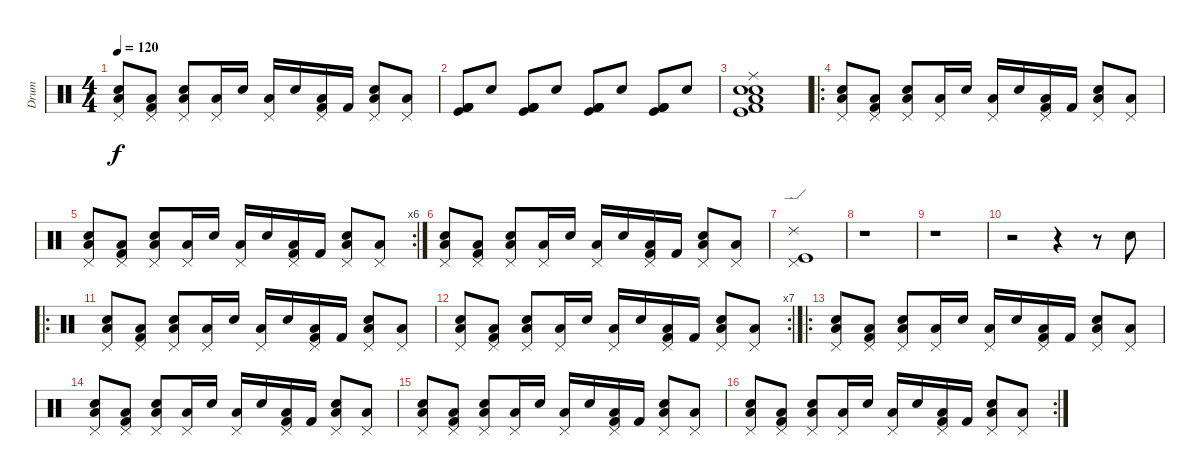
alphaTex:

\track ("Drum" "Drum") {instrument percussion}
\staff {score}
\articulation defaults
\ts (4 4)
\tempo 120
\clef neutral
\ks c
("Pedal Hi-Hat (hit)" "Low Floor Tom (hit)" "Snare (hit) 2").8{dy f} ("Pedal Hi-Hat (hit)" "Low Floor Tom (hit)" "Kick (hit) 2").8 ("Pedal Hi-Hat (hit)" "Low Floor Tom (hit)" "Snare (hit) 2").8 ("Pedal Hi-Hat (hit)" "Low Floor Tom (hit)").16 "Snare (hit) 2".16 ("Pedal Hi-Hat (hit)" "Low Floor Tom (hit)").16 "Snare (hit) 2".16 ("Pedal Hi-Hat (hit)" "Low Floor Tom (hit)" "Kick (hit) 2").16 "Kick (hit) 2".16 ("Pedal Hi-Hat (hit)" "Low Floor Tom (hit)" "Snare (hit) 2").8 ("Pedal Hi-Hat (hit)" "Low Floor Tom (hit)").8 |
("Kick (hit)" "Kick (hit) 2" "Kick (hit) 2" "Kick (hit) 2").8 "Electric Snare (hit)".8 ("Kick (hit)" "Kick (hit) 2" "Kick (hit) 2" "Kick (hit) 2").8 "Electric Snare (hit)".8 ("Kick (hit)" "Kick (hit) 2" "Kick (hit) 2" "Kick (hit) 2").8 "Electric Snare (hit)".8 ("Kick (hit)" "Kick (hit) 2" "Kick (hit) 2").8 "Electric Snare (hit)".8 |
("Low Floor Tom (hit)" "Kick (hit)" "Ride (middle)" "Kick (hit) 2" "Electric Snare (hit)" "Snare (hit) 2").1 |
\ro
("Pedal Hi-Hat (hit)" "Low Floor Tom (hit)" "Snare (hit) 2").8 ("Pedal Hi-Hat (hit)" "Low Floor Tom (hit)" "Kick (hit) 2").8 ("Pedal Hi-Hat (hit)" "Low Floor Tom (hit)" "Snare (hit) 2").8 ("Pedal Hi-Hat (hit)" "Low Floor Tom (hit)").16 "Snare (hit) 2".16 ("Pedal Hi-Hat (hit)" "Low Floor Tom (hit)").16 "Snare (hit) 2".16 ("Pedal Hi-Hat (hit)" "Low Floor Tom (hit)" "Kick (hit) 2").16 "Kick (hit) 2".16 ("Pedal Hi-Hat (hit)" "Low Floor Tom (hit)" "Snare (hit) 2").8 ("Pedal Hi-Hat (hit)" "Low Floor Tom (hit)").8 |
\rc 6
("Pedal Hi-Hat (hit)" "Low Floor Tom (hit)" "Snare (hit) 2").8 ("Pedal Hi-Hat (hit)" "Low Floor Tom (hit)" "Kick (hit) 2").8 ("Pedal Hi-Hat (hit)" "Low Floor Tom (hit)" "Snare (hit) 2").8 ("Pedal Hi-Hat (hit)" "Low Floor Tom (hit)").16 "Snare (hit) 2".16 ("Pedal Hi-Hat (hit)" "Low Floor Tom (hit)").16 "Snare (hit) 2".16 ("Pedal Hi-Hat (hit)" "Low Floor Tom (hit)" "Kick (hit) 2").16 "Kick (hit) 2".16 ("Pedal Hi-Hat (hit)" "Low Floor Tom (hit)" "Snare (hit) 2").8 ("Pedal Hi-Hat (hit)" "Low Floor Tom (hit)").8 |
("Pedal Hi-Hat (hit)" "Low Floor Tom (hit)" "Snare (hit) 2").8 ("Pedal Hi-Hat (hit)" "Low Floor Tom (hit)" "Kick (hit) 2").8 ("Pedal Hi-Hat (hit)" "Low Floor Tom (hit)" "Snare (hit) 2").8 ("Pedal Hi-Hat (hit)" "Low Floor Tom (hit)").16 "Snare (hit) 2".16 ("Pedal Hi-Hat (hit)" "Low Floor Tom (hit)").16 "Snare (hit) 2".16 ("Pedal Hi-Hat (hit)" "Low Floor Tom (hit)" "Kick (hit) 2").16 "Kick (hit) 2".16 ("Pedal Hi-Hat (hit)" "Low Floor Tom (hit)" "Snare (hit) 2").8 ("Pedal Hi-Hat (hit)" "Low Floor Tom (hit)").8 |
("Ride (edge) 2" "Pedal Hi-Hat (hit)" "Kick (hit)").1 |
r.1 |
r.1 |
r.2 r.4 r.8 "Snare (hit) 2".8 |
\ro
("Pedal Hi-Hat (hit)" "Low Floor Tom (hit)" "Snare (hit) 2").8 ("Pedal Hi-Hat (hit)" "Low Floor Tom (hit)" "Kick (hit) 2").8 ("Pedal Hi-Hat (hit)" "Low Floor Tom (hit)" "Snare (hit) 2").8 ("Pedal Hi-Hat (hit)" "Low Floor Tom (hit)").16 "Snare (hit) 2".16 ("Pedal Hi-Hat (hit)" "Low Floor Tom (hit)").16 "Snare (hit) 2".16 ("Pedal Hi-Hat (hit)" "Low Floor Tom (hit)" "Kick (hit) 2").16 "Kick (hit) 2".16 ("Pedal Hi-Hat (hit)" "Low Floor Tom (hit)" "Snare (hit) 2").8 ("Pedal Hi-Hat (hit)" "Low Floor Tom (hit)").8 |
\rc 7
("Pedal Hi-Hat (hit)" "Low Floor Tom (hit)" "Snare (hit) 2").8 ("Pedal Hi-Hat (hit)" "Low Floor Tom (hit)" "Kick (hit) 2").8 ("Pedal Hi-Hat (hit)" "Low Floor Tom (hit)" "Snare (hit) 2").8 ("Pedal Hi-Hat (hit)" "Low Floor Tom (hit)").16 "Snare (hit) 2".16 ("Pedal Hi-Hat (hit)" "Low Floor Tom (hit)").16 "Snare (hit) 2".16 ("Pedal Hi-Hat (hit)" "Low Floor Tom (hit)" "Kick (hit) 2").16 "Kick (hit) 2".16 ("Pedal Hi-Hat (hit)" "Low Floor Tom (hit)" "Snare (hit) 2").8 ("Pedal Hi-Hat (hit)" "Low Floor Tom (hit)").8 |
\ro
("Pedal Hi-Hat (hit)" "Low Floor Tom (hit)" "Snare (hit) 2").8 ("Pedal Hi-Hat (hit)" "Low Floor Tom (hit)" "Kick (hit) 2").8 ("Pedal Hi-Hat (hit)" "Low Floor Tom (hit)" "Snare (hit) 2").8 ("Pedal Hi-Hat (hit)" "Low Floor Tom (hit)").16 "Snare (hit) 2".16 ("Pedal Hi-Hat (hit)" "Low Floor Tom (hit)").16 "Snare (hit) 2".16 ("Pedal Hi-Hat (hit)" "Low Floor Tom (hit)" "Kick (hit) 2").16 "Kick (hit) 2".16 ("Pedal Hi-Hat (hit)" "Low Floor Tom (hit)" "Snare (hit) 2").8 ("Pedal Hi-Hat (hit)" "Low Floor Tom (hit)").8 |
("Pedal Hi-Hat (hit)" "Low Floor Tom (hit)" "Snare (hit) 2").8 ("Pedal Hi-Hat (hit)" "Low Floor Tom (hit)" "Kick (hit) 2").8 ("Pedal Hi-Hat (hit)" "Low Floor Tom (hit)" "Snare (hit) 2").8 ("Pedal Hi-Hat (hit)" "Low Floor Tom (hit)").16 "Snare (hit) 2".16 ("Pedal Hi-Hat (hit)" "Low Floor Tom (hit)").16 "Snare (hit) 2".16 ("Pedal Hi-Hat (hit)" "Low Floor Tom (hit)" "Kick (hit) 2").16 "Kick (hit) 2".16 ("Pedal Hi-Hat (hit)" "Low Floor Tom (hit)" "Snare (hit) 2").8 ("Pedal Hi-Hat (hit)" "Low Floor Tom (hit)").8 |
("Pedal Hi-Hat (hit)" "Low Floor Tom (hit)" "Snare (hit) 2").8 ("Pedal Hi-Hat (hit)" "Low Floor Tom (hit)" "Kick (hit) 2").8 ("Pedal Hi-Hat (hit)" "Low Floor Tom (hit)" "Snare (hit) 2").8 ("Pedal Hi-Hat (hit)" "Low Floor Tom (hit)").16 "Snare (hit) 2".16 ("Pedal Hi-Hat (hit)" "Low Floor Tom (hit)").16 "Snare (hit) 2".16 ("Pedal Hi-Hat (hit)" "Low Floor Tom (hit)" "Kick (hit) 2").16 "Kick (hit) 2".16 ("Pedal Hi-Hat (hit)" "Low Floor Tom (hit)" "Snare (hit) 2").8 ("Pedal Hi-Hat (hit)" "Low Floor Tom (hit)").8 |
\rc 2
("Pedal Hi-Hat (hit)" "Low Floor Tom (hit)" "Snare (hit) 2").8 ("Pedal Hi-Hat (hit)" "Low Floor Tom (hit)" "Kick (hit) 2").8 ("Pedal Hi-Hat (hit)" "Low Floor Tom (hit)" "Snare (hit) 2").8 ("Pedal Hi-Hat (hit)" "Low Floor Tom (hit)").16 "Snare (hit) 2".16 ("Pedal Hi-Hat (hit)" "Low Floor Tom (hit)").16 "Snare (hit) 2".16 ("Pedal Hi-Hat (hit)" "Low Floor Tom (hit)" "Kick (hit) 2").16 "Kick (hit) 2".16 ("Pedal Hi-Hat (hit)" "Low Floor Tom (hit)" "Snare (hit) 2").8 ("Pedal Hi-Hat (hit)" "Low Floor Tom (hit)").8
